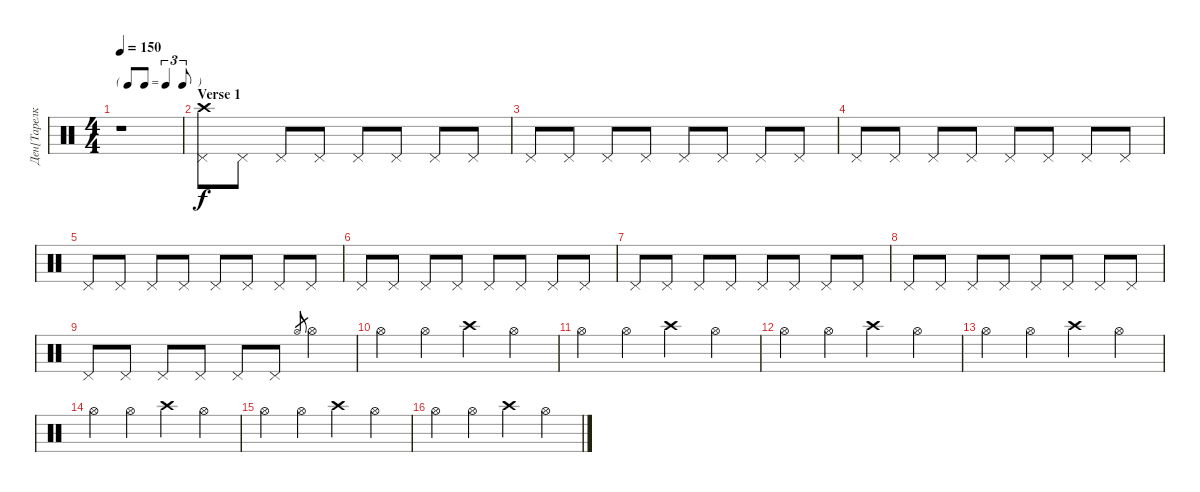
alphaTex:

\track ("Ден[Тарелки]" "Ден[Тарелк") {instrument percussion}
\staff {score}
\articulation defaults
\ts (4 4)
\tf triplet8th
\tempo 150
\clef neutral
\ks c
r.1{dy f} |
\section ("" "Verse 1")
("Pedal Hi-Hat (hit)" "Crash high (hit)").8 "Pedal Hi-Hat (hit)".8 "Pedal Hi-Hat (hit)".8 "Pedal Hi-Hat (hit)".8 "Pedal Hi-Hat (hit)".8 "Pedal Hi-Hat (hit)".8 "Pedal Hi-Hat (hit)".8 "Pedal Hi-Hat (hit)".8 |
"Pedal Hi-Hat (hit)".8 "Pedal Hi-Hat (hit)".8 "Pedal Hi-Hat (hit)".8 "Pedal Hi-Hat (hit)".8 "Pedal Hi-Hat (hit)".8 "Pedal Hi-Hat (hit)".8 "Pedal Hi-Hat (hit)".8 "Pedal Hi-Hat (hit)".8 |
"Pedal Hi-Hat (hit)".8 "Pedal Hi-Hat (hit)".8 "Pedal Hi-Hat (hit)".8 "Pedal Hi-Hat (hit)".8 "Pedal Hi-Hat (hit)".8 "Pedal Hi-Hat (hit)".8 "Pedal Hi-Hat (hit)".8 "Pedal Hi-Hat (hit)".8 |
"Pedal Hi-Hat (hit)".8 "Pedal Hi-Hat (hit)".8 "Pedal Hi-Hat (hit)".8 "Pedal Hi-Hat (hit)".8 "Pedal Hi-Hat (hit)".8 "Pedal Hi-Hat (hit)".8 "Pedal Hi-Hat (hit)".8 "Pedal Hi-Hat (hit)".8 |
"Pedal Hi-Hat (hit)".8 "Pedal Hi-Hat (hit)".8 "Pedal Hi-Hat (hit)".8 "Pedal Hi-Hat (hit)".8 "Pedal Hi-Hat (hit)".8 "Pedal Hi-Hat (hit)".8 "Pedal Hi-Hat (hit)".8 "Pedal Hi-Hat (hit)".8 |
"Pedal Hi-Hat (hit)".8 "Pedal Hi-Hat (hit)".8 "Pedal Hi-Hat (hit)".8 "Pedal Hi-Hat (hit)".8 "Pedal Hi-Hat (hit)".8 "Pedal Hi-Hat (hit)".8 "Pedal Hi-Hat (hit)".8 "Pedal Hi-Hat (hit)".8 |
"Pedal Hi-Hat (hit)".8 "Pedal Hi-Hat (hit)".8 "Pedal Hi-Hat (hit)".8 "Pedal Hi-Hat (hit)".8 "Pedal Hi-Hat (hit)".8 "Pedal Hi-Hat (hit)".8 "Pedal Hi-Hat (hit)".8 "Pedal Hi-Hat (hit)".8 |
"Pedal Hi-Hat (hit)".8 "Pedal Hi-Hat (hit)".8 "Pedal Hi-Hat (hit)".8 "Pedal Hi-Hat (hit)".8 "Pedal Hi-Hat (hit)".8 "Pedal Hi-Hat (hit)".8 "Hi-Hat (open)".8{gr} "Hi-Hat (open)".4 |
"Hi-Hat (open)".4 "Hi-Hat (open)".4 "Crash high (hit)".4 "Hi-Hat (open)".4 |
"Hi-Hat (open)".4 "Hi-Hat (open)".4 "Crash high (hit)".4 "Hi-Hat (open)".4 |
"Hi-Hat (open)".4 "Hi-Hat (open)".4 "Crash high (hit)".4 "Hi-Hat (open)".4 |
"Hi-Hat (open)".4 "Hi-Hat (open)".4 "Crash high (hit)".4 "Hi-Hat (open)".4 |
"Hi-Hat (open)".4 "Hi-Hat (open)".4 "Crash high (hit)".4 "Hi-Hat (open)".4 |
"Hi-Hat (open)".4 "Hi-Hat (open)".4 "Crash high (hit)".4 "Hi-Hat (open)".4 |
"Hi-Hat (open)".4 "Hi-Hat (open)".4 "Crash high (hit)".4 "Hi-Hat (open)".4
